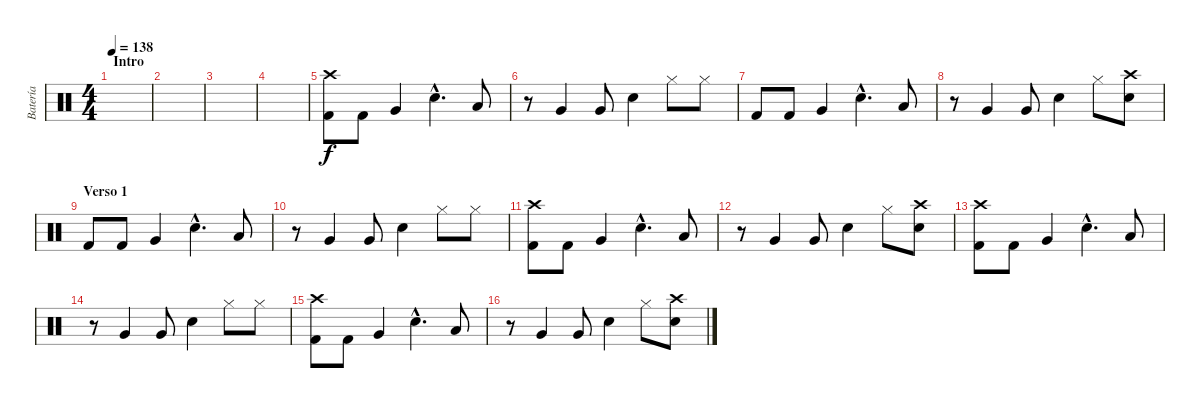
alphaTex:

\track ("Batería" "Batería") {instrument percussion}
\staff {score}
\articulation defaults
\ts (4 4)
\section ("" "Intro")
\tempo 138
\clef neutral
\ks c
|
|
|
|
("Kick (hit) 2" "Crash high (hit)").8 "Kick (hit) 2".8 "Very Low Tom (hit)".4 "Electric Snare (hit)"{hac}.4{d} "Low Tom (hit)".8 |
r.8 "Very Low Tom (hit)".4 "Very Low Tom (hit)".8 "Electric Snare (hit)".4 "Hi-Hat (closed)".8 "Hi-Hat (closed)".8 |
"Kick (hit) 2".8 "Kick (hit) 2".8 "Very Low Tom (hit)".4 "Electric Snare (hit)"{hac}.4{d} "Low Tom (hit)".8 |
r.8 "Very Low Tom (hit)".4 "Very Low Tom (hit)".8 "Electric Snare (hit)".4 "Hi-Hat (closed)".8 ("Electric Snare (hit)" "Crash high (hit)").8 |
\section ("" "Verso 1")
"Kick (hit) 2".8 "Kick (hit) 2".8 "Very Low Tom (hit)".4 "Electric Snare (hit)"{hac}.4{d} "Low Tom (hit)".8 |
r.8 "Very Low Tom (hit)".4 "Very Low Tom (hit)".8 "Electric Snare (hit)".4 "Hi-Hat (closed)".8 "Hi-Hat (closed)".8 |
("Kick (hit) 2" "Crash high (hit)").8 "Kick (hit) 2".8 "Very Low Tom (hit)".4 "Electric Snare (hit)"{hac}.4{d} "Low Tom (hit)".8 |
r.8 "Very Low Tom (hit)".4 "Very Low Tom (hit)".8 "Electric Snare (hit)".4 "Hi-Hat (closed)".8 ("Electric Snare (hit)" "Crash high (hit)").8 |
("Kick (hit) 2" "Crash high (hit)").8 "Kick (hit) 2".8 "Very Low Tom (hit)".4 "Electric Snare (hit)"{hac}.4{d} "Low Tom (hit)".8 |
r.8 "Very Low Tom (hit)".4 "Very Low Tom (hit)".8 "Electric Snare (hit)".4 "Hi-Hat (closed)".8 "Hi-Hat (closed)".8 |
("Kick (hit) 2" "Crash high (hit)").8 "Kick (hit) 2".8 "Very Low Tom (hit)".4 "Electric Snare (hit)"{hac}.4{d} "Low Tom (hit)".8 |
r.8 "Very Low Tom (hit)".4 "Very Low Tom (hit)".8 "Electric Snare (hit)".4 "Hi-Hat (closed)".8 ("Electric Snare (hit)" "Crash high (hit)").8
